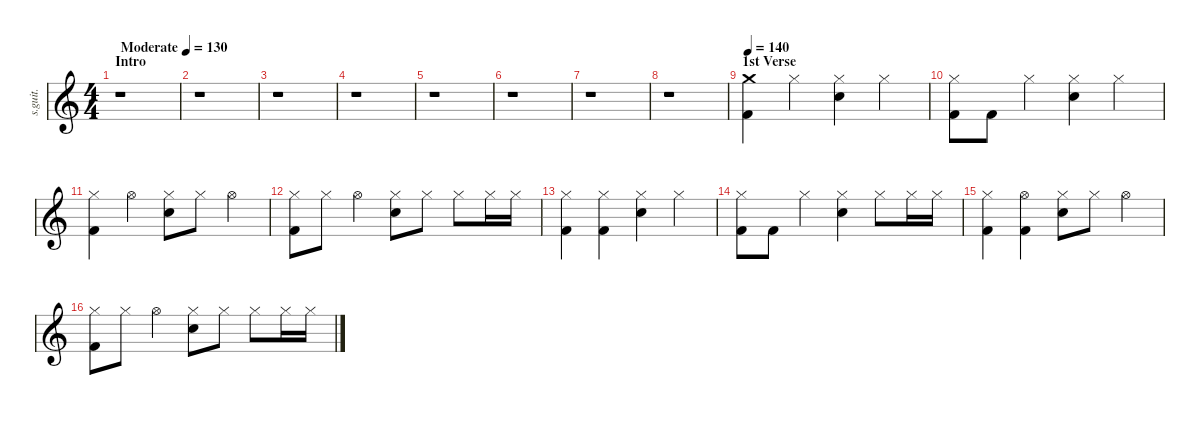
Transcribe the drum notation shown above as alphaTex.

\defaultSystemsLayout 4
\hideDynamics
\bracketExtendMode nobrackets
\track ("Abe Cunningham" "s.guit.") {instrument percussion}
\staff {score}
\articulation defaults
\ts (4 4)
\beaming (8 2 2 2 2)
\section ("" "Intro")
\tempo (130 "Moderate")
\clef g2
\ks c
r.1{dy fff} |
r.1 |
r.1 |
r.1 |
r.1 |
r.1 |
r.1 |
r.1 |
\section ("" "1st Verse")
\tempo 140
("Crash medium (hit)" "Kick (hit) 2").4{lyrics (0 "") lyrics (1 "") lyrics (2 "") lyrics (3 "") lyrics (4 "")} "Hi-Hat (closed)".4{lyrics (0 "") lyrics (1 "") lyrics (2 "") lyrics (3 "") lyrics (4 "")} ("Hi-Hat (closed)" "Snare (hit) 2").4{lyrics (0 "") lyrics (1 "") lyrics (2 "") lyrics (3 "") lyrics (4 "")} "Hi-Hat (closed)".4{lyrics (0 "") lyrics (1 "") lyrics (2 "") lyrics (3 "") lyrics (4 "")} |
("Hi-Hat (closed)" "Kick (hit) 2").8{lyrics (0 "") lyrics (1 "") lyrics (2 "") lyrics (3 "") lyrics (4 "")} "Kick (hit) 2".8{lyrics (0 "") lyrics (1 "") lyrics (2 "") lyrics (3 "") lyrics (4 "")} "Hi-Hat (closed)".4{lyrics (0 "") lyrics (1 "") lyrics (2 "") lyrics (3 "") lyrics (4 "")} ("Hi-Hat (closed)" "Snare (hit) 2").4{lyrics (0 "") lyrics (1 "") lyrics (2 "") lyrics (3 "") lyrics (4 "")} "Hi-Hat (closed)".4{lyrics (0 "") lyrics (1 "") lyrics (2 "") lyrics (3 "") lyrics (4 "")} |
("Hi-Hat (closed)" "Kick (hit) 2").4{lyrics (0 "") lyrics (1 "") lyrics (2 "") lyrics (3 "") lyrics (4 "")} "Hi-Hat (open)".4{lyrics (0 "") lyrics (1 "") lyrics (2 "") lyrics (3 "") lyrics (4 "")} ("Hi-Hat (closed)" "Snare (hit) 2").8{lyrics (0 "") lyrics (1 "") lyrics (2 "") lyrics (3 "") lyrics (4 "")} "Hi-Hat (closed)".8{lyrics (0 "") lyrics (1 "") lyrics (2 "") lyrics (3 "") lyrics (4 "")} "Hi-Hat (open)".4{lyrics (0 "") lyrics (1 "") lyrics (2 "") lyrics (3 "") lyrics (4 "")} |
("Hi-Hat (closed)" "Kick (hit) 2").8{lyrics (0 "") lyrics (1 "") lyrics (2 "") lyrics (3 "") lyrics (4 "")} "Hi-Hat (closed)".8{lyrics (0 "") lyrics (1 "") lyrics (2 "") lyrics (3 "") lyrics (4 "")} "Hi-Hat (open)".4{lyrics (0 "") lyrics (1 "") lyrics (2 "") lyrics (3 "") lyrics (4 "")} ("Hi-Hat (closed)" "Snare (hit) 2").8{lyrics (0 "") lyrics (1 "") lyrics (2 "") lyrics (3 "") lyrics (4 "")} "Hi-Hat (closed)".8{lyrics (0 "") lyrics (1 "") lyrics (2 "") lyrics (3 "") lyrics (4 "")} "Hi-Hat (closed)".8{lyrics (0 "") lyrics (1 "") lyrics (2 "") lyrics (3 "") lyrics (4 "")} "Hi-Hat (closed)".16{lyrics (0 "") lyrics (1 "") lyrics (2 "") lyrics (3 "") lyrics (4 "")} "Hi-Hat (closed)".16{lyrics (0 "") lyrics (1 "") lyrics (2 "") lyrics (3 "") lyrics (4 "")} |
("Hi-Hat (closed)" "Kick (hit) 2").4{lyrics (0 "") lyrics (1 "") lyrics (2 "") lyrics (3 "") lyrics (4 "")} ("Hi-Hat (closed)" "Kick (hit) 2").4{lyrics (0 "") lyrics (1 "") lyrics (2 "") lyrics (3 "") lyrics (4 "")} ("Hi-Hat (closed)" "Snare (hit) 2").4{lyrics (0 "") lyrics (1 "") lyrics (2 "") lyrics (3 "") lyrics (4 "")} "Hi-Hat (closed)".4{lyrics (0 "") lyrics (1 "") lyrics (2 "") lyrics (3 "") lyrics (4 "")} |
("Hi-Hat (closed)" "Kick (hit) 2").8{lyrics (0 "") lyrics (1 "") lyrics (2 "") lyrics (3 "") lyrics (4 "")} "Kick (hit) 2".8{lyrics (0 "") lyrics (1 "") lyrics (2 "") lyrics (3 "") lyrics (4 "")} "Hi-Hat (closed)".4{lyrics (0 "") lyrics (1 "") lyrics (2 "") lyrics (3 "") lyrics (4 "")} ("Hi-Hat (closed)" "Snare (hit) 2").4{lyrics (0 "") lyrics (1 "") lyrics (2 "") lyrics (3 "") lyrics (4 "")} "Hi-Hat (closed)".8{lyrics (0 "") lyrics (1 "") lyrics (2 "") lyrics (3 "") lyrics (4 "")} "Hi-Hat (closed)".16{lyrics (0 "") lyrics (1 "") lyrics (2 "") lyrics (3 "") lyrics (4 "")} "Hi-Hat (closed)".16{lyrics (0 "") lyrics (1 "") lyrics (2 "") lyrics (3 "") lyrics (4 "")} |
("Hi-Hat (closed)" "Kick (hit) 2").4{lyrics (0 "") lyrics (1 "") lyrics (2 "") lyrics (3 "") lyrics (4 "")} ("Hi-Hat (open)" "Kick (hit) 2").4{lyrics (0 "") lyrics (1 "") lyrics (2 "") lyrics (3 "") lyrics (4 "")} ("Hi-Hat (closed)" "Snare (hit) 2").8{lyrics (0 "") lyrics (1 "") lyrics (2 "") lyrics (3 "") lyrics (4 "")} "Hi-Hat (closed)".8{lyrics (0 "") lyrics (1 "") lyrics (2 "") lyrics (3 "") lyrics (4 "")} "Hi-Hat (open)".4{lyrics (0 "") lyrics (1 "") lyrics (2 "") lyrics (3 "") lyrics (4 "")} |
("Hi-Hat (closed)" "Kick (hit) 2").8{lyrics (0 "") lyrics (1 "") lyrics (2 "") lyrics (3 "") lyrics (4 "")} "Hi-Hat (closed)".8{lyrics (0 "") lyrics (1 "") lyrics (2 "") lyrics (3 "") lyrics (4 "")} "Hi-Hat (open)".4{lyrics (0 "") lyrics (1 "") lyrics (2 "") lyrics (3 "") lyrics (4 "")} ("Hi-Hat (closed)" "Snare (hit) 2").8{lyrics (0 "") lyrics (1 "") lyrics (2 "") lyrics (3 "") lyrics (4 "")} "Hi-Hat (closed)".8{lyrics (0 "") lyrics (1 "") lyrics (2 "") lyrics (3 "") lyrics (4 "")} "Hi-Hat (closed)".8{lyrics (0 "") lyrics (1 "") lyrics (2 "") lyrics (3 "") lyrics (4 "")} "Hi-Hat (closed)".16{lyrics (0 "") lyrics (1 "") lyrics (2 "") lyrics (3 "") lyrics (4 "")} "Hi-Hat (closed)".16{lyrics (0 "") lyrics (1 "") lyrics (2 "") lyrics (3 "") lyrics (4 "")}
